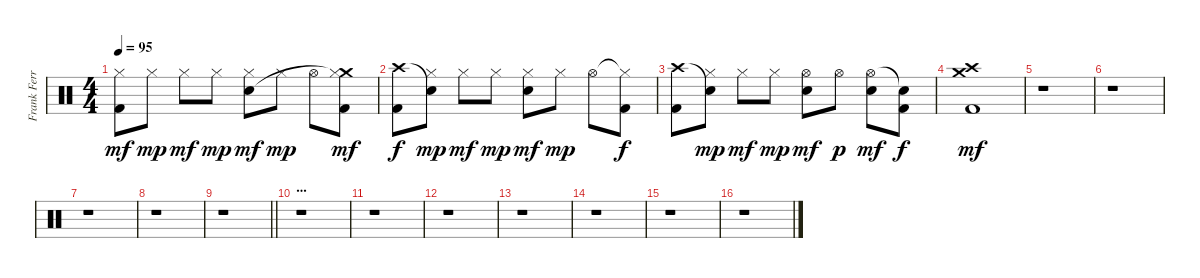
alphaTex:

\track ("Frank Ferrer - Drums" "Frank Ferr") {instrument percussion}
\staff {score}
\articulation defaults
\ts (4 4)
\tempo 95
\clef neutral
\ks c
("Hi-Hat (closed)" "Kick (hit) 2").8{dy mf} "Hi-Hat (closed)".8{dy mp} "Hi-Hat (closed)".8{dy mf} "Hi-Hat (closed)".8{dy mp} ("Hi-Hat (closed)" "Electric Snare (hit)").8{dy mf} "Hi-Hat (closed)".8{dy mp} "Hi-Hat (open)".8 ("Crash medium (hit)" "Hi-Hat (closed)"{t} "Kick (hit) 2").8{dy mf} |
("Crash high (hit)" "Kick (hit) 2").8{dy f} ("Snare (hit)"{t} "Hi-Hat (closed)").8{dy mp} "Hi-Hat (closed)".8{dy mf} "Hi-Hat (closed)".8{dy mp} ("Hi-Hat (closed)" "Electric Snare (hit)").8{dy mf} "Hi-Hat (closed)".8{dy mp} "Hi-Hat (open)".8 ("Hi-Hat (closed)"{t} "Kick (hit) 2").8{dy f} |
("Crash high (hit)" "Kick (hit) 2").8 ("Snare (hit)"{t} "Hi-Hat (closed)").8{dy mp} "Hi-Hat (closed)".8{dy mf} "Hi-Hat (closed)".8{dy mp} ("Hi-Hat (open)" "Electric Snare (hit)").8{dy mf} "Hi-Hat (open)".8{dy p} ("Hi-Hat (open)" "Electric Snare (hit)").8{dy mf} ("Snare (hit)"{t} "Kick (hit) 2").8{dy f} |
("Crash high (hit)" "Crash medium (hit)" "Kick (hit) 2").1{dy mf} |
r.1 |
r.1 |
r.1 |
r.1 |
\barLineRight lightlight
r.1 |
\section ("" "...")
r.1 |
r.1 |
r.1 |
r.1 |
r.1 |
r.1 |
r.1
